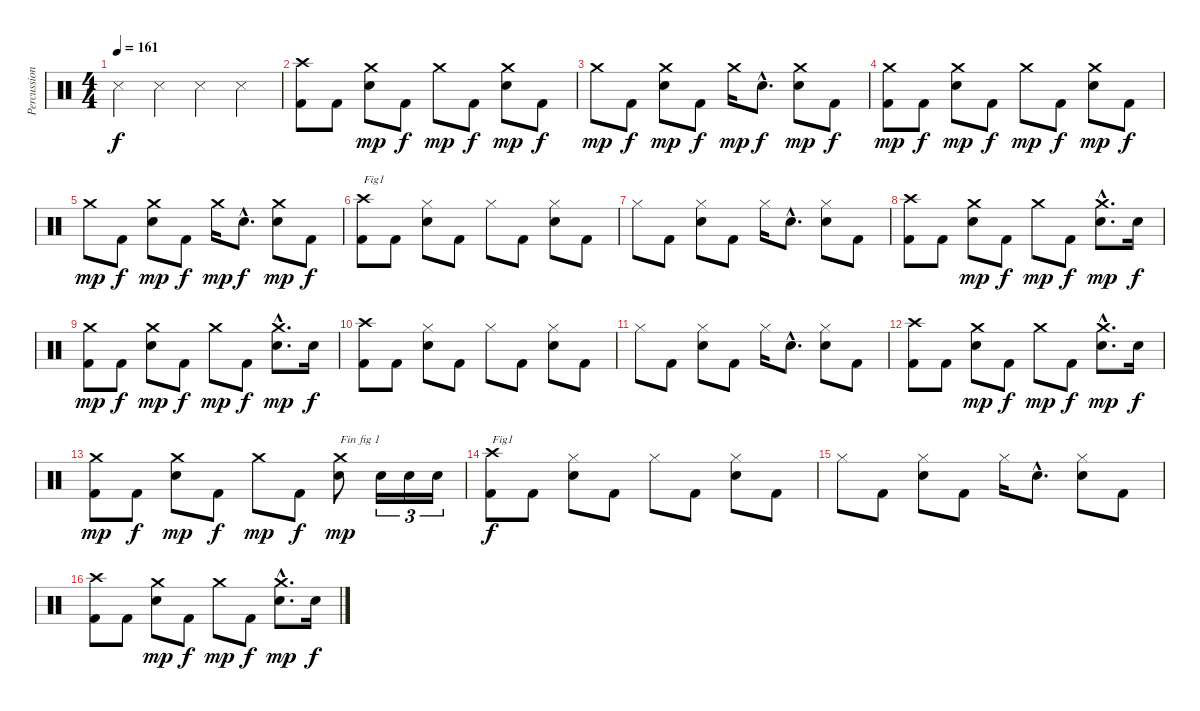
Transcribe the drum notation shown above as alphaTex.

\track ("Percussions" "Percussion") {instrument percussion}
\staff {score}
\articulation defaults
\ts (4 4)
\tempo 161
\clef neutral
\ks c "Metronome (hit)".4{dy f} "Metronome (hit)".4 "Metronome (hit)".4 "Metronome (hit)".4
|
("Kick (hit) 2" "Crash high (hit)").8 "Kick (hit) 2".8 ("Electric Snare (hit)" "Crash medium (hit)").8{dy mp} "Kick (hit) 2".8{dy f} "Crash medium (hit)".8{dy mp} "Kick (hit) 2".8{dy f} ("Electric Snare (hit)" "Crash medium (hit)").8{dy mp} "Kick (hit) 2".8{dy f} |
"Crash medium (hit)".8{dy mp} "Kick (hit) 2".8{dy f} ("Electric Snare (hit)" "Crash medium (hit)").8{dy mp} "Kick (hit) 2".8{dy f} "Crash medium (hit)".16{dy mp} "Electric Snare (hit)"{hac}.8{d dy f} ("Electric Snare (hit)" "Crash medium (hit)").8{dy mp} "Kick (hit) 2".8{dy f} |
("Kick (hit) 2" "Crash medium (hit)").8{dy mp} "Kick (hit) 2".8{dy f} ("Electric Snare (hit)" "Crash medium (hit)").8{dy mp} "Kick (hit) 2".8{dy f} "Crash medium (hit)".8{dy mp} "Kick (hit) 2".8{dy f} ("Electric Snare (hit)" "Crash medium (hit)").8{dy mp} "Kick (hit) 2".8{dy f} |
"Crash medium (hit)".8{dy mp} "Kick (hit) 2".8{dy f} ("Electric Snare (hit)" "Crash medium (hit)").8{dy mp} "Kick (hit) 2".8{dy f} "Crash medium (hit)".16{dy mp} "Electric Snare (hit)"{hac}.8{d dy f} ("Electric Snare (hit)" "Crash medium (hit)").8{dy mp} "Kick (hit) 2".8{dy f} |
("Kick (hit) 2" "Crash high (hit)").8{txt "Fig1"} "Kick (hit) 2".8 ("Electric Snare (hit)" "Hi-Hat (closed)").8 "Kick (hit) 2".8 "Hi-Hat (closed)".8 "Kick (hit) 2".8 ("Electric Snare (hit)" "Hi-Hat (closed)").8 "Kick (hit) 2".8 |
"Hi-Hat (closed)".8 "Kick (hit) 2".8 ("Electric Snare (hit)" "Hi-Hat (closed)").8 "Kick (hit) 2".8 "Hi-Hat (closed)".16 "Electric Snare (hit)"{hac}.8{d} ("Electric Snare (hit)" "Hi-Hat (closed)").8 "Kick (hit) 2".8 |
("Kick (hit) 2" "Crash high (hit)").8 "Kick (hit) 2".8 ("Electric Snare (hit)" "Crash medium (hit)").8{dy mp} "Kick (hit) 2".8{dy f} "Crash medium (hit)".8{dy mp} "Kick (hit) 2".8{dy f} ("Electric Snare (hit)"{hac} "Crash medium (hit)"{hac}).8{d dy mp} "Electric Snare (hit)".16{dy f} |
("Kick (hit) 2" "Crash medium (hit)").8{dy mp} "Kick (hit) 2".8{dy f} ("Electric Snare (hit)" "Crash medium (hit)").8{dy mp} "Kick (hit) 2".8{dy f} "Crash medium (hit)".8{dy mp} "Kick (hit) 2".8{dy f} ("Electric Snare (hit)"{hac} "Crash medium (hit)"{hac}).8{d dy mp} "Electric Snare (hit)".16{dy f} |
("Kick (hit) 2" "Crash high (hit)").8 "Kick (hit) 2".8 ("Electric Snare (hit)" "Hi-Hat (closed)").8 "Kick (hit) 2".8 "Hi-Hat (closed)".8 "Kick (hit) 2".8 ("Electric Snare (hit)" "Hi-Hat (closed)").8 "Kick (hit) 2".8 |
"Hi-Hat (closed)".8 "Kick (hit) 2".8 ("Electric Snare (hit)" "Hi-Hat (closed)").8 "Kick (hit) 2".8 "Hi-Hat (closed)".16 "Electric Snare (hit)"{hac}.8{d} ("Electric Snare (hit)" "Hi-Hat (closed)").8 "Kick (hit) 2".8 |
("Kick (hit) 2" "Crash high (hit)").8 "Kick (hit) 2".8 ("Electric Snare (hit)" "Crash medium (hit)").8{dy mp} "Kick (hit) 2".8{dy f} "Crash medium (hit)".8{dy mp} "Kick (hit) 2".8{dy f} ("Electric Snare (hit)"{hac} "Crash medium (hit)"{hac}).8{d dy mp} "Electric Snare (hit)".16{dy f} |
("Kick (hit) 2" "Crash medium (hit)").8{dy mp} "Kick (hit) 2".8{dy f} ("Electric Snare (hit)" "Crash medium (hit)").8{dy mp} "Kick (hit) 2".8{dy f} "Crash medium (hit)".8{dy mp} "Kick (hit) 2".8{dy f} ("Electric Snare (hit)" "Crash medium (hit)").8{txt "Fin fig 1" dy mp} "Electric Snare (hit)".16{tu (3 2)} "Electric Snare (hit)".16{tu (3 2)} "Electric Snare (hit)".16{tu (3 2)} |
("Kick (hit) 2" "Crash high (hit)").8{txt "Fig1" dy f} "Kick (hit) 2".8 ("Electric Snare (hit)" "Hi-Hat (closed)").8 "Kick (hit) 2".8 "Hi-Hat (closed)".8 "Kick (hit) 2".8 ("Electric Snare (hit)" "Hi-Hat (closed)").8 "Kick (hit) 2".8 |
"Hi-Hat (closed)".8 "Kick (hit) 2".8 ("Electric Snare (hit)" "Hi-Hat (closed)").8 "Kick (hit) 2".8 "Hi-Hat (closed)".16 "Electric Snare (hit)"{hac}.8{d} ("Electric Snare (hit)" "Hi-Hat (closed)").8 "Kick (hit) 2".8 |
("Kick (hit) 2" "Crash high (hit)").8 "Kick (hit) 2".8 ("Electric Snare (hit)" "Crash medium (hit)").8{dy mp} "Kick (hit) 2".8{dy f} "Crash medium (hit)".8{dy mp} "Kick (hit) 2".8{dy f} ("Electric Snare (hit)"{hac} "Crash medium (hit)"{hac}).8{d dy mp} "Electric Snare (hit)".16{dy f}
